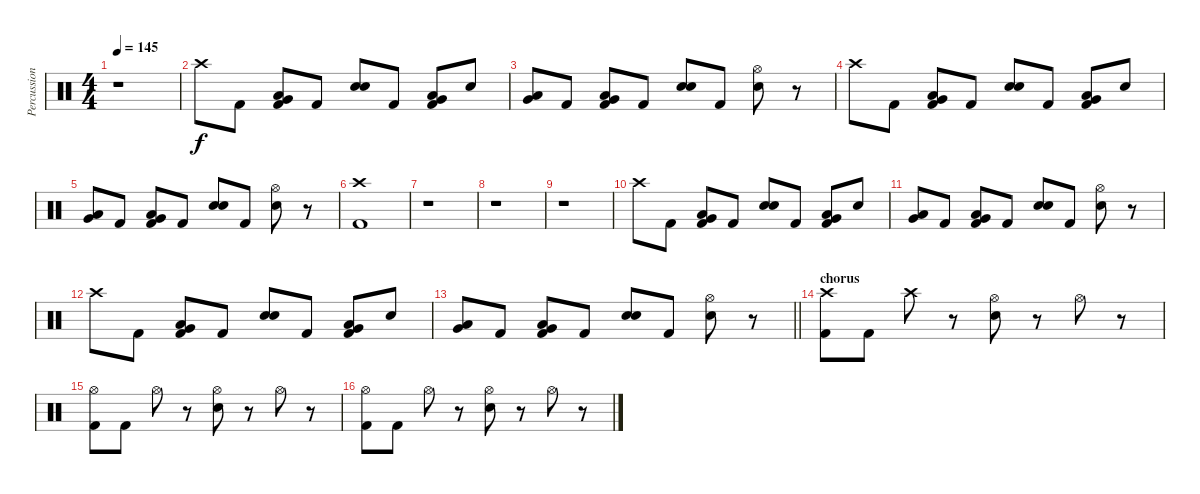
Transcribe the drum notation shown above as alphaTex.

\track ("Percussion" "Percussion") {instrument percussion}
\staff {score}
\articulation defaults
\ts (4 4)
\tempo 145
\clef neutral
\ks c
r.1{dy f} |
"Crash high (hit)".8 "Kick (hit) 2".8 ("Low Tom (hit)" "Very Low Tom (hit)" "Kick (hit) 2").8 "Kick (hit) 2".8 ("Electric Snare (hit)" "Electric Snare (hit)").8 "Kick (hit) 2".8 ("Low Tom (hit)" "Very Low Tom (hit)" "Kick (hit) 2").8 "Electric Snare (hit)".8 |
("Low Tom (hit)" "Very Low Tom (hit)").8 "Kick (hit) 2".8 ("Low Tom (hit)" "Very Low Tom (hit)" "Kick (hit) 2").8 "Kick (hit) 2".8 ("Electric Snare (hit)" "Electric Snare (hit)").8 "Kick (hit) 2".8 ("Hi-Hat (open)" "Electric Snare (hit)").8 r.8 |
"Crash high (hit)".8 "Kick (hit) 2".8 ("Low Tom (hit)" "Very Low Tom (hit)" "Kick (hit) 2").8 "Kick (hit) 2".8 ("Electric Snare (hit)" "Electric Snare (hit)").8 "Kick (hit) 2".8 ("Low Tom (hit)" "Very Low Tom (hit)" "Kick (hit) 2").8 "Electric Snare (hit)".8 |
("Low Tom (hit)" "Very Low Tom (hit)").8 "Kick (hit) 2".8 ("Low Tom (hit)" "Very Low Tom (hit)" "Kick (hit) 2").8 "Kick (hit) 2".8 ("Electric Snare (hit)" "Electric Snare (hit)").8 "Kick (hit) 2".8 ("Hi-Hat (open)" "Electric Snare (hit)").8 r.8 |
("Crash high (hit)" "Kick (hit) 2").1 |
r.1 |
r.1 |
r.1 |
"Crash high (hit)".8 "Kick (hit) 2".8 ("Low Tom (hit)" "Very Low Tom (hit)" "Kick (hit) 2").8 "Kick (hit) 2".8 ("Electric Snare (hit)" "Electric Snare (hit)").8 "Kick (hit) 2".8 ("Low Tom (hit)" "Very Low Tom (hit)" "Kick (hit) 2").8 "Electric Snare (hit)".8 |
("Low Tom (hit)" "Very Low Tom (hit)").8 "Kick (hit) 2".8 ("Low Tom (hit)" "Very Low Tom (hit)" "Kick (hit) 2").8 "Kick (hit) 2".8 ("Electric Snare (hit)" "Electric Snare (hit)").8 "Kick (hit) 2".8 ("Hi-Hat (open)" "Electric Snare (hit)").8 r.8 |
"Crash high (hit)".8 "Kick (hit) 2".8 ("Low Tom (hit)" "Very Low Tom (hit)" "Kick (hit) 2").8 "Kick (hit) 2".8 ("Electric Snare (hit)" "Electric Snare (hit)").8 "Kick (hit) 2".8 ("Low Tom (hit)" "Very Low Tom (hit)" "Kick (hit) 2").8 "Electric Snare (hit)".8 |
\barLineRight lightlight
("Low Tom (hit)" "Very Low Tom (hit)").8 "Kick (hit) 2".8 ("Low Tom (hit)" "Very Low Tom (hit)" "Kick (hit) 2").8 "Kick (hit) 2".8 ("Electric Snare (hit)" "Electric Snare (hit)").8 "Kick (hit) 2".8 ("Hi-Hat (open)" "Electric Snare (hit)").8 r.8 |
\section ("" "chorus")
("Crash high (hit)" "Kick (hit) 2").8 "Kick (hit) 2".8 "Crash high (hit)".8 r.8 ("Hi-Hat (open)" "Electric Snare (hit)").8 r.8 "Hi-Hat (open)".8 r.8 |
("Hi-Hat (open)" "Kick (hit) 2").8 "Kick (hit) 2".8 "Hi-Hat (open)".8 r.8 ("Hi-Hat (open)" "Electric Snare (hit)").8 r.8 "Hi-Hat (open)".8 r.8 |
("Hi-Hat (open)" "Kick (hit) 2").8 "Kick (hit) 2".8 "Hi-Hat (open)".8 r.8 ("Hi-Hat (open)" "Electric Snare (hit)").8 r.8 "Hi-Hat (open)".8 r.8
